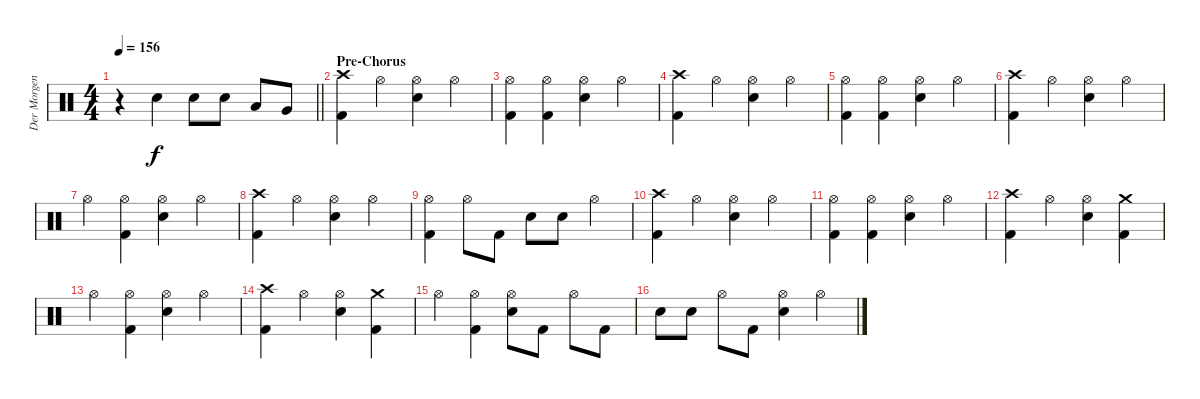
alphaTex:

\track ("Der Morgenstern" "Der Morgen") {instrument percussion}
\staff {score}
\articulation defaults
\ts (4 4)
\tempo 156
\clef neutral
\barLineRight lightlight
\ks c
r.4{dy ppp} "Electric Snare (hit)".4{dy f} "Electric Snare (hit)".8 "Electric Snare (hit)".8 "Low Tom (hit)".8 "Very Low Tom (hit)".8 |
\section ("" "Pre-Chorus")
("Crash high (hit)" "Kick (hit) 2").4 "Hi-Hat (open)".4 ("Hi-Hat (open)" "Electric Snare (hit)").4 "Hi-Hat (open)".4 |
("Hi-Hat (open)" "Kick (hit) 2").4 ("Hi-Hat (open)" "Kick (hit) 2").4 ("Hi-Hat (open)" "Electric Snare (hit)").4 "Hi-Hat (open)".4 |
("Crash high (hit)" "Kick (hit) 2").4 "Hi-Hat (open)".4 ("Hi-Hat (open)" "Electric Snare (hit)").4 "Hi-Hat (open)".4 |
("Hi-Hat (open)" "Kick (hit) 2").4 ("Hi-Hat (open)" "Kick (hit) 2").4 ("Hi-Hat (open)" "Electric Snare (hit)").4 "Hi-Hat (open)".4 |
("Crash high (hit)" "Kick (hit) 2").4 "Hi-Hat (open)".4 ("Hi-Hat (open)" "Electric Snare (hit)").4 "Hi-Hat (open)".4 |
"Hi-Hat (open)".4 ("Hi-Hat (open)" "Kick (hit) 2").4 ("Hi-Hat (open)" "Electric Snare (hit)").4 "Hi-Hat (open)".4 |
("Crash high (hit)" "Kick (hit) 2").4 "Hi-Hat (open)".4 ("Hi-Hat (open)" "Electric Snare (hit)").4 "Hi-Hat (open)".4 |
("Hi-Hat (open)" "Kick (hit) 2").4 "Hi-Hat (open)".8 "Kick (hit) 2".8 "Electric Snare (hit)".8 "Electric Snare (hit)".8 "Hi-Hat (open)".4 |
("Crash high (hit)" "Kick (hit) 2").4 "Hi-Hat (open)".4 ("Hi-Hat (open)" "Electric Snare (hit)").4 "Hi-Hat (open)".4 |
("Hi-Hat (open)" "Kick (hit) 2").4 ("Hi-Hat (open)" "Kick (hit) 2").4 ("Hi-Hat (open)" "Electric Snare (hit)").4 "Hi-Hat (open)".4 |
("Crash high (hit)" "Kick (hit) 2").4 "Hi-Hat (open)".4 ("Hi-Hat (open)" "Electric Snare (hit)").4 ("Crash medium (hit)" "Kick (hit) 2").4 |
"Hi-Hat (open)".4 ("Hi-Hat (open)" "Kick (hit) 2").4 ("Hi-Hat (open)" "Electric Snare (hit)").4 "Hi-Hat (open)".4 |
("Crash high (hit)" "Kick (hit) 2").4 "Hi-Hat (open)".4 ("Hi-Hat (open)" "Electric Snare (hit)").4 ("Crash medium (hit)" "Kick (hit) 2").4 |
"Hi-Hat (open)".4 ("Hi-Hat (open)" "Kick (hit) 2").4 ("Hi-Hat (open)" "Electric Snare (hit)").8 "Kick (hit) 2".8 "Hi-Hat (open)".8 "Kick (hit) 2".8 |
"Electric Snare (hit)".8 "Electric Snare (hit)".8 "Hi-Hat (open)".8 "Kick (hit) 2".8 ("Hi-Hat (open)" "Electric Snare (hit)").4 "Hi-Hat (open)".4
